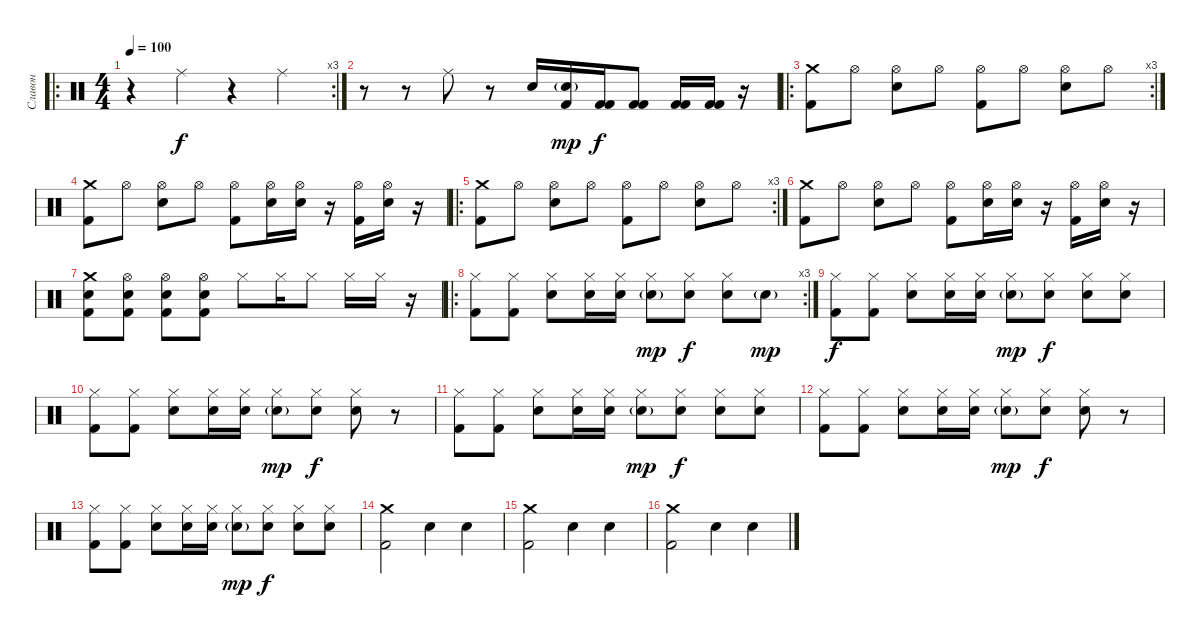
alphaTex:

\track ("Славон" "Славон") {instrument percussion}
\staff {score}
\articulation defaults
\ro
\rc 3
\ts (4 4)
\tempo 100
\clef neutral
\ks c
r.4{dy f} "Ride (middle)".4 r.4 "Ride (middle)".4 |
r.8 r.8 "Ride (middle)".8 r.8 "Snare (hit) 2".16 ("Snare (hit) 2"{g} "Kick (hit) 2").16{dy mp} ("Kick (hit) 2" "Kick (hit) 2").16{dy f} ("Kick (hit) 2" "Kick (hit) 2").8 ("Kick (hit) 2" "Kick (hit) 2").16 ("Kick (hit) 2" "Kick (hit) 2").16 r.16 |
\ro
\rc 3
("Crash medium (hit)" "Kick (hit) 2").8 "Hi-Hat (open)".8 ("Hi-Hat (open)" "Snare (hit) 2").8 "Hi-Hat (open)".8 ("Hi-Hat (open)" "Kick (hit) 2").8 "Hi-Hat (open)".8 ("Hi-Hat (open)" "Snare (hit) 2").8 "Hi-Hat (open)".8 |
("Crash medium (hit)" "Kick (hit) 2").8 "Hi-Hat (open)".8 ("Hi-Hat (open)" "Snare (hit) 2").8 "Hi-Hat (open)".8 ("Hi-Hat (open)" "Kick (hit) 2").8 ("Hi-Hat (open)" "Snare (hit) 2").16 ("Hi-Hat (open)" "Snare (hit) 2").16 r.16 ("Hi-Hat (open)" "Kick (hit) 2").16 ("Hi-Hat (open)" "Snare (hit) 2").16 r.16 |
\ro
\rc 3
("Crash medium (hit)" "Kick (hit) 2").8 "Hi-Hat (open)".8 ("Hi-Hat (open)" "Snare (hit) 2").8 "Hi-Hat (open)".8 ("Hi-Hat (open)" "Kick (hit) 2").8 "Hi-Hat (open)".8 ("Hi-Hat (open)" "Snare (hit) 2").8 "Hi-Hat (open)".8 |
("Crash medium (hit)" "Kick (hit) 2").8 "Hi-Hat (open)".8 ("Hi-Hat (open)" "Snare (hit) 2").8 "Hi-Hat (open)".8 ("Hi-Hat (open)" "Kick (hit) 2").8 ("Hi-Hat (open)" "Snare (hit) 2").16 ("Hi-Hat (open)" "Snare (hit) 2").16 r.16 ("Hi-Hat (open)" "Kick (hit) 2").16 ("Hi-Hat (open)" "Snare (hit) 2").16 r.16 |
("Crash medium (hit)" "Snare (hit) 2" "Kick (hit) 2").8 ("Hi-Hat (open)" "Snare (hit) 2" "Kick (hit) 2").8 ("Hi-Hat (open)" "Snare (hit) 2" "Kick (hit) 2").8 ("Hi-Hat (open)" "Snare (hit) 2" "Kick (hit) 2").8 "Hi-Hat (closed)".8 "Hi-Hat (closed)".16 "Hi-Hat (closed)".8 "Hi-Hat (closed)".16 "Hi-Hat (closed)".16 r.16 |
\ro
\rc 3
("Hi-Hat (closed)" "Kick (hit) 2").8 ("Hi-Hat (closed)" "Kick (hit) 2").8 ("Hi-Hat (closed)" "Snare (hit) 2").8 ("Hi-Hat (closed)" "Snare (hit) 2").16 ("Hi-Hat (closed)" "Snare (hit) 2").16 ("Hi-Hat (closed)" "Snare (hit) 2"{g}).8{dy mp} ("Hi-Hat (closed)" "Snare (hit) 2").8{dy f} ("Hi-Hat (closed)" "Snare (hit) 2").8 "Snare (hit) 2"{g}.8{dy mp} |
("Hi-Hat (closed)" "Kick (hit) 2").8{dy f} ("Hi-Hat (closed)" "Kick (hit) 2").8 ("Hi-Hat (closed)" "Snare (hit) 2").8 ("Hi-Hat (closed)" "Snare (hit) 2").16 ("Hi-Hat (closed)" "Snare (hit) 2").16 ("Hi-Hat (closed)" "Snare (hit) 2"{g}).8{dy mp} ("Hi-Hat (closed)" "Snare (hit) 2").8{dy f} ("Hi-Hat (closed)" "Snare (hit) 2").8 ("Hi-Hat (closed)" "Snare (hit) 2").8 |
("Hi-Hat (closed)" "Kick (hit) 2").8 ("Hi-Hat (closed)" "Kick (hit) 2").8 ("Hi-Hat (closed)" "Snare (hit) 2").8 ("Hi-Hat (closed)" "Snare (hit) 2").16 ("Hi-Hat (closed)" "Snare (hit) 2").16 ("Hi-Hat (closed)" "Snare (hit) 2"{g}).8{dy mp} ("Hi-Hat (closed)" "Snare (hit) 2").8{dy f} ("Hi-Hat (closed)" "Snare (hit) 2").8 r.8 |
("Hi-Hat (closed)" "Kick (hit) 2").8 ("Hi-Hat (closed)" "Kick (hit) 2").8 ("Hi-Hat (closed)" "Snare (hit) 2").8 ("Hi-Hat (closed)" "Snare (hit) 2").16 ("Hi-Hat (closed)" "Snare (hit) 2").16 ("Hi-Hat (closed)" "Snare (hit) 2"{g}).8{dy mp} ("Hi-Hat (closed)" "Snare (hit) 2").8{dy f} ("Hi-Hat (closed)" "Snare (hit) 2").8 ("Hi-Hat (closed)" "Snare (hit) 2").8 |
("Hi-Hat (closed)" "Kick (hit) 2").8 ("Hi-Hat (closed)" "Kick (hit) 2").8 ("Hi-Hat (closed)" "Snare (hit) 2").8 ("Hi-Hat (closed)" "Snare (hit) 2").16 ("Hi-Hat (closed)" "Snare (hit) 2").16 ("Hi-Hat (closed)" "Snare (hit) 2"{g}).8{dy mp} ("Hi-Hat (closed)" "Snare (hit) 2").8{dy f} ("Hi-Hat (closed)" "Snare (hit) 2").8 r.8 |
("Hi-Hat (closed)" "Kick (hit) 2").8 ("Hi-Hat (closed)" "Kick (hit) 2").8 ("Hi-Hat (closed)" "Snare (hit) 2").8 ("Hi-Hat (closed)" "Snare (hit) 2").16 ("Hi-Hat (closed)" "Snare (hit) 2").16 ("Hi-Hat (closed)" "Snare (hit) 2"{g}).8{dy mp} ("Hi-Hat (closed)" "Snare (hit) 2").8{dy f} ("Hi-Hat (closed)" "Snare (hit) 2").8 ("Hi-Hat (closed)" "Snare (hit) 2").8 |
("Crash medium (hit)" "Kick (hit) 2").2 "Snare (hit) 2".4 "Snare (hit) 2".4 |
("Crash medium (hit)" "Kick (hit) 2").2 "Snare (hit) 2".4 "Snare (hit) 2".4 |
("Crash medium (hit)" "Kick (hit) 2").2 "Snare (hit) 2".4 "Snare (hit) 2".4
